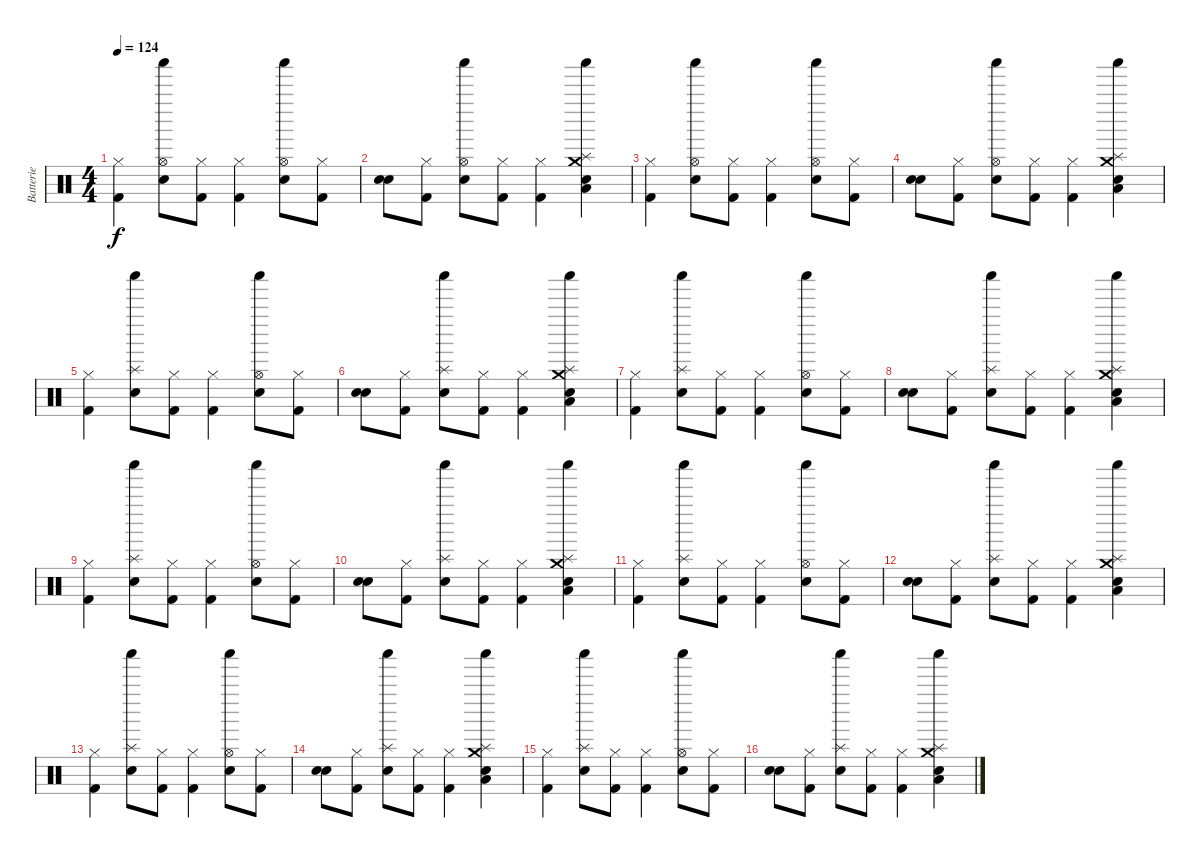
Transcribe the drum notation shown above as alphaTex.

\track ("Batterie" "Batterie") {instrument percussion}
\staff {score}
\articulation defaults
\ts (4 4)
\tempo 124
\clef neutral
\ks c
("Hi-Hat (closed)" "Kick (hit) 2").4{dy f} ("Shaker (hit)" "Hi-Hat (open)" "Snare (hit) 2").8 ("Hi-Hat (closed)" "Kick (hit) 2").8 ("Hi-Hat (closed)" "Kick (hit) 2").4 ("Shaker (hit)" "Hi-Hat (open)" "Snare (hit) 2").8 ("Hi-Hat (closed)" "Kick (hit) 2").8 |
("Snare (hit)" "Snare (hit)").8 ("Hi-Hat (closed)" "Kick (hit) 2").8 ("Shaker (hit)" "Hi-Hat (open)" "Snare (hit) 2").8 ("Hi-Hat (closed)" "Kick (hit) 2").8 ("Hi-Hat (closed)" "Kick (hit) 2").4 ("Shaker (hit)" "Splash (hit)" "Snare (hit) 2" "Crash medium (hit)" "Low Tom (hit)").4 |
("Hi-Hat (closed)" "Kick (hit) 2").4 ("Shaker (hit)" "Hi-Hat (open)" "Snare (hit) 2").8 ("Hi-Hat (closed)" "Kick (hit) 2").8 ("Hi-Hat (closed)" "Kick (hit) 2").4 ("Shaker (hit)" "Hi-Hat (open)" "Snare (hit) 2").8 ("Hi-Hat (closed)" "Kick (hit) 2").8 |
("Snare (hit)" "Snare (hit)").8 ("Hi-Hat (closed)" "Kick (hit) 2").8 ("Shaker (hit)" "Hi-Hat (open)" "Snare (hit) 2").8 ("Hi-Hat (closed)" "Kick (hit) 2").8 ("Hi-Hat (closed)" "Kick (hit) 2").4 ("Shaker (hit)" "Splash (hit)" "Snare (hit) 2" "Crash medium (hit)" "Low Tom (hit)").4 |
("Hi-Hat (closed)" "Kick (hit) 2").4 ("Shaker (hit)" "Splash (hit)" "Snare (hit) 2").8 ("Hi-Hat (closed)" "Kick (hit) 2").8 ("Hi-Hat (closed)" "Kick (hit) 2").4 ("Shaker (hit)" "Hi-Hat (open)" "Snare (hit) 2").8 ("Hi-Hat (closed)" "Kick (hit) 2").8 |
("Snare (hit)" "Snare (hit)").8 ("Hi-Hat (closed)" "Kick (hit) 2").8 ("Shaker (hit)" "Splash (hit)" "Snare (hit) 2").8 ("Hi-Hat (closed)" "Kick (hit) 2").8 ("Hi-Hat (closed)" "Kick (hit) 2").4 ("Shaker (hit)" "Splash (hit)" "Snare (hit) 2" "Crash medium (hit)" "Low Tom (hit)").4 |
("Hi-Hat (closed)" "Kick (hit) 2").4 ("Shaker (hit)" "Splash (hit)" "Snare (hit) 2").8 ("Hi-Hat (closed)" "Kick (hit) 2").8 ("Hi-Hat (closed)" "Kick (hit) 2").4 ("Shaker (hit)" "Hi-Hat (open)" "Snare (hit) 2").8 ("Hi-Hat (closed)" "Kick (hit) 2").8 |
("Snare (hit)" "Snare (hit)").8 ("Hi-Hat (closed)" "Kick (hit) 2").8 ("Shaker (hit)" "Splash (hit)" "Snare (hit) 2").8 ("Hi-Hat (closed)" "Kick (hit) 2").8 ("Hi-Hat (closed)" "Kick (hit) 2").4 ("Shaker (hit)" "Splash (hit)" "Snare (hit) 2" "Crash medium (hit)" "Low Tom (hit)").4 |
("Hi-Hat (closed)" "Kick (hit) 2").4 ("Shaker (hit)" "Splash (hit)" "Snare (hit) 2").8 ("Hi-Hat (closed)" "Kick (hit) 2").8 ("Hi-Hat (closed)" "Kick (hit) 2").4 ("Shaker (hit)" "Hi-Hat (open)" "Snare (hit) 2").8 ("Hi-Hat (closed)" "Kick (hit) 2").8 |
("Snare (hit)" "Snare (hit)").8 ("Hi-Hat (closed)" "Kick (hit) 2").8 ("Shaker (hit)" "Splash (hit)" "Snare (hit) 2").8 ("Hi-Hat (closed)" "Kick (hit) 2").8 ("Hi-Hat (closed)" "Kick (hit) 2").4 ("Shaker (hit)" "Splash (hit)" "Snare (hit) 2" "Crash medium (hit)" "Low Tom (hit)").4 |
("Hi-Hat (closed)" "Kick (hit) 2").4 ("Shaker (hit)" "Splash (hit)" "Snare (hit) 2").8 ("Hi-Hat (closed)" "Kick (hit) 2").8 ("Hi-Hat (closed)" "Kick (hit) 2").4 ("Shaker (hit)" "Hi-Hat (open)" "Snare (hit) 2").8 ("Hi-Hat (closed)" "Kick (hit) 2").8 |
("Snare (hit)" "Snare (hit)").8 ("Hi-Hat (closed)" "Kick (hit) 2").8 ("Shaker (hit)" "Splash (hit)" "Snare (hit) 2").8 ("Hi-Hat (closed)" "Kick (hit) 2").8 ("Hi-Hat (closed)" "Kick (hit) 2").4 ("Shaker (hit)" "Splash (hit)" "Snare (hit) 2" "Crash medium (hit)" "Low Tom (hit)").4 |
("Hi-Hat (closed)" "Kick (hit) 2").4 ("Shaker (hit)" "Splash (hit)" "Snare (hit) 2").8 ("Hi-Hat (closed)" "Kick (hit) 2").8 ("Hi-Hat (closed)" "Kick (hit) 2").4 ("Shaker (hit)" "Hi-Hat (open)" "Snare (hit) 2").8 ("Hi-Hat (closed)" "Kick (hit) 2").8 |
("Snare (hit)" "Snare (hit)").8 ("Hi-Hat (closed)" "Kick (hit) 2").8 ("Shaker (hit)" "Splash (hit)" "Snare (hit) 2").8 ("Hi-Hat (closed)" "Kick (hit) 2").8 ("Hi-Hat (closed)" "Kick (hit) 2").4 ("Shaker (hit)" "Splash (hit)" "Snare (hit) 2" "Crash medium (hit)" "Low Tom (hit)").4 |
("Hi-Hat (closed)" "Kick (hit) 2").4 ("Shaker (hit)" "Splash (hit)" "Snare (hit) 2").8 ("Hi-Hat (closed)" "Kick (hit) 2").8 ("Hi-Hat (closed)" "Kick (hit) 2").4 ("Shaker (hit)" "Hi-Hat (open)" "Snare (hit) 2").8 ("Hi-Hat (closed)" "Kick (hit) 2").8 |
("Snare (hit)" "Snare (hit)").8 ("Hi-Hat (closed)" "Kick (hit) 2").8 ("Shaker (hit)" "Splash (hit)" "Snare (hit) 2").8 ("Hi-Hat (closed)" "Kick (hit) 2").8 ("Hi-Hat (closed)" "Kick (hit) 2").4 ("Shaker (hit)" "Splash (hit)" "Snare (hit) 2" "Crash medium (hit)" "Low Tom (hit)").4
